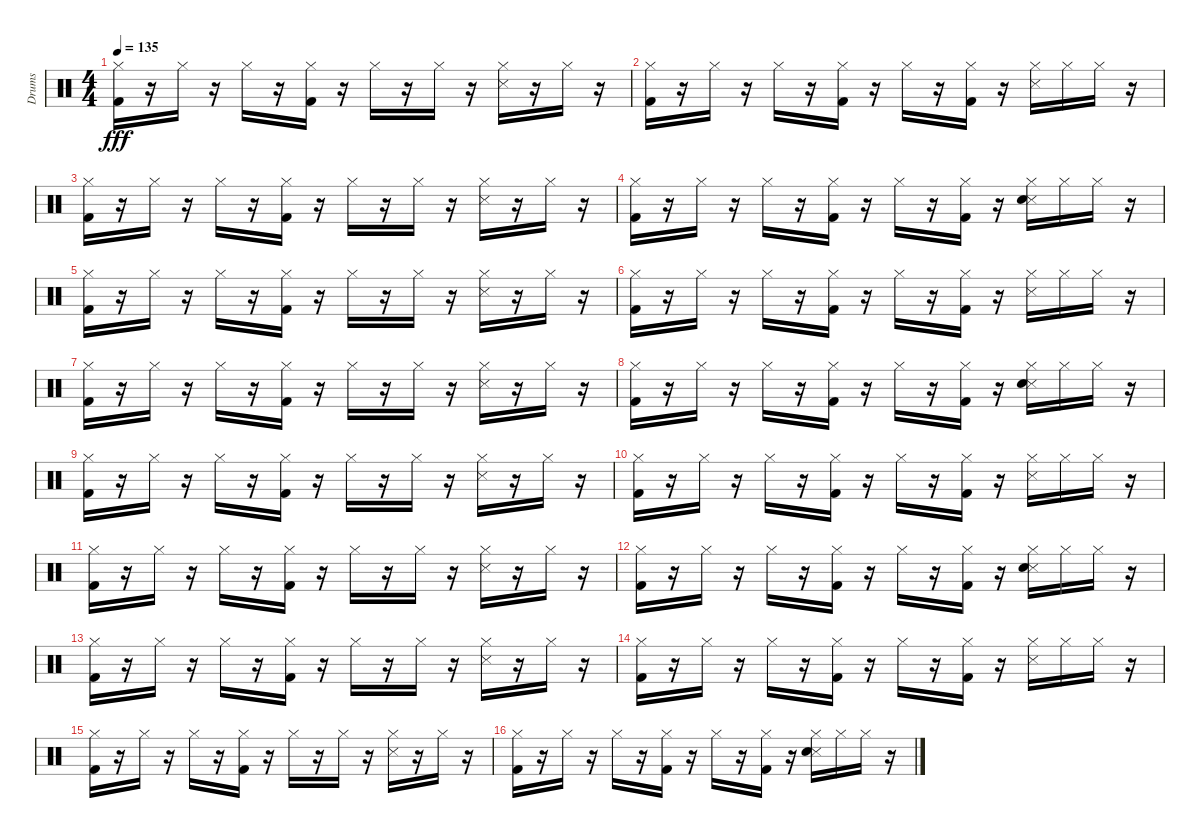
\track ("Drums" "Drums") {instrument percussion}
\staff {score}
\articulation defaults
\ts (4 4)
\tempo 135
\clef neutral
\ks c
("Hi-Hat (closed)" "Kick (hit) 2").16{dy fff} r.16 "Hi-Hat (closed)".16 r.16 "Hi-Hat (closed)".16 r.16 ("Kick (hit) 2" "Hi-Hat (closed)").16 r.16 "Hi-Hat (closed)".16 r.16 "Hi-Hat (closed)".16 r.16 ("Snare (side stick) 3" "Hi-Hat (closed)").16 r.16 "Hi-Hat (closed)".16 r.16 |
("Kick (hit) 2" "Hi-Hat (closed)").16 r.16 "Hi-Hat (closed)".16 r.16 "Hi-Hat (closed)".16 r.16 ("Kick (hit) 2" "Hi-Hat (closed)").16 r.16 "Hi-Hat (closed)".16 r.16 ("Kick (hit) 2" "Hi-Hat (closed)").16 r.16 ("Snare (side stick) 3" "Hi-Hat (closed)").16 "Hi-Hat (closed)".16 "Hi-Hat (closed)".16 r.16 |
("Kick (hit) 2" "Hi-Hat (closed)").16 r.16 "Hi-Hat (closed)".16 r.16 "Hi-Hat (closed)".16 r.16 ("Kick (hit) 2" "Hi-Hat (closed)").16 r.16 "Hi-Hat (closed)".16 r.16 "Hi-Hat (closed)".16 r.16 ("Snare (side stick) 3" "Hi-Hat (closed)").16 r.16 "Hi-Hat (closed)".16 r.16 |
("Kick (hit) 2" "Hi-Hat (closed)").16 r.16 "Hi-Hat (closed)".16 r.16 "Hi-Hat (closed)".16 r.16 ("Kick (hit) 2" "Hi-Hat (closed)").16 r.16 "Hi-Hat (closed)".16 r.16 ("Kick (hit) 2" "Hi-Hat (closed)").16 r.16 ("Snare (side stick) 3" "Electric Snare (hit)" "Hi-Hat (closed)").16 "Hi-Hat (closed)".16 "Hi-Hat (closed)".16 r.16 |
("Kick (hit) 2" "Hi-Hat (closed)").16 r.16 "Hi-Hat (closed)".16 r.16 "Hi-Hat (closed)".16 r.16 ("Kick (hit) 2" "Hi-Hat (closed)").16 r.16 "Hi-Hat (closed)".16 r.16 "Hi-Hat (closed)".16 r.16 ("Snare (side stick) 3" "Hi-Hat (closed)").16 r.16 "Hi-Hat (closed)".16 r.16 |
("Kick (hit) 2" "Hi-Hat (closed)").16 r.16 "Hi-Hat (closed)".16 r.16 "Hi-Hat (closed)".16 r.16 ("Kick (hit) 2" "Hi-Hat (closed)").16 r.16 "Hi-Hat (closed)".16 r.16 ("Kick (hit) 2" "Hi-Hat (closed)").16 r.16 ("Snare (side stick) 3" "Hi-Hat (closed)").16 "Hi-Hat (closed)".16 "Hi-Hat (closed)".16 r.16 |
("Kick (hit) 2" "Hi-Hat (closed)").16 r.16 "Hi-Hat (closed)".16 r.16 "Hi-Hat (closed)".16 r.16 ("Kick (hit) 2" "Hi-Hat (closed)").16 r.16 "Hi-Hat (closed)".16 r.16 "Hi-Hat (closed)".16 r.16 ("Snare (side stick) 3" "Hi-Hat (closed)").16 r.16 "Hi-Hat (closed)".16 r.16 |
("Kick (hit) 2" "Hi-Hat (closed)").16 r.16 "Hi-Hat (closed)".16 r.16 "Hi-Hat (closed)".16 r.16 ("Kick (hit) 2" "Hi-Hat (closed)").16 r.16 "Hi-Hat (closed)".16 r.16 ("Kick (hit) 2" "Hi-Hat (closed)").16 r.16 ("Snare (side stick) 3" "Electric Snare (hit)" "Hi-Hat (closed)").16 "Hi-Hat (closed)".16 "Hi-Hat (closed)".16 r.16 |
("Kick (hit) 2" "Hi-Hat (closed)").16 r.16 "Hi-Hat (closed)".16 r.16 "Hi-Hat (closed)".16 r.16 ("Kick (hit) 2" "Hi-Hat (closed)").16 r.16 "Hi-Hat (closed)".16 r.16 "Hi-Hat (closed)".16 r.16 ("Snare (side stick) 3" "Hi-Hat (closed)").16 r.16 "Hi-Hat (closed)".16 r.16 |
("Kick (hit) 2" "Hi-Hat (closed)").16 r.16 "Hi-Hat (closed)".16 r.16 "Hi-Hat (closed)".16 r.16 ("Kick (hit) 2" "Hi-Hat (closed)").16 r.16 "Hi-Hat (closed)".16 r.16 ("Kick (hit) 2" "Hi-Hat (closed)").16 r.16 ("Snare (side stick) 3" "Hi-Hat (closed)").16 "Hi-Hat (closed)".16 "Hi-Hat (closed)".16 r.16 |
("Kick (hit) 2" "Hi-Hat (closed)").16 r.16 "Hi-Hat (closed)".16 r.16 "Hi-Hat (closed)".16 r.16 ("Kick (hit) 2" "Hi-Hat (closed)").16 r.16 "Hi-Hat (closed)".16 r.16 "Hi-Hat (closed)".16 r.16 ("Snare (side stick) 3" "Hi-Hat (closed)").16 r.16 "Hi-Hat (closed)".16 r.16 |
("Kick (hit) 2" "Hi-Hat (closed)").16 r.16 "Hi-Hat (closed)".16 r.16 "Hi-Hat (closed)".16 r.16 ("Kick (hit) 2" "Hi-Hat (closed)").16 r.16 "Hi-Hat (closed)".16 r.16 ("Kick (hit) 2" "Hi-Hat (closed)").16 r.16 ("Snare (side stick) 3" "Electric Snare (hit)" "Hi-Hat (closed)").16 "Hi-Hat (closed)".16 "Hi-Hat (closed)".16 r.16 |
("Kick (hit) 2" "Hi-Hat (closed)").16 r.16 "Hi-Hat (closed)".16 r.16 "Hi-Hat (closed)".16 r.16 ("Kick (hit) 2" "Hi-Hat (closed)").16 r.16 "Hi-Hat (closed)".16 r.16 "Hi-Hat (closed)".16 r.16 ("Snare (side stick) 3" "Hi-Hat (closed)").16 r.16 "Hi-Hat (closed)".16 r.16 |
("Kick (hit) 2" "Hi-Hat (closed)").16 r.16 "Hi-Hat (closed)".16 r.16 "Hi-Hat (closed)".16 r.16 ("Kick (hit) 2" "Hi-Hat (closed)").16 r.16 "Hi-Hat (closed)".16 r.16 ("Kick (hit) 2" "Hi-Hat (closed)").16 r.16 ("Snare (side stick) 3" "Hi-Hat (closed)").16 "Hi-Hat (closed)".16 "Hi-Hat (closed)".16 r.16 |
("Kick (hit) 2" "Hi-Hat (closed)").16 r.16 "Hi-Hat (closed)".16 r.16 "Hi-Hat (closed)".16 r.16 ("Kick (hit) 2" "Hi-Hat (closed)").16 r.16 "Hi-Hat (closed)".16 r.16 "Hi-Hat (closed)".16 r.16 ("Snare (side stick) 3" "Hi-Hat (closed)").16 r.16 "Hi-Hat (closed)".16 r.16 |
("Kick (hit) 2" "Hi-Hat (closed)").16 r.16 "Hi-Hat (closed)".16 r.16 "Hi-Hat (closed)".16 r.16 ("Kick (hit) 2" "Hi-Hat (closed)").16 r.16 "Hi-Hat (closed)".16 r.16 ("Kick (hit) 2" "Hi-Hat (closed)").16 r.16 ("Snare (side stick) 3" "Electric Snare (hit)" "Hi-Hat (closed)").16 "Hi-Hat (closed)".16 "Hi-Hat (closed)".16 r.16
